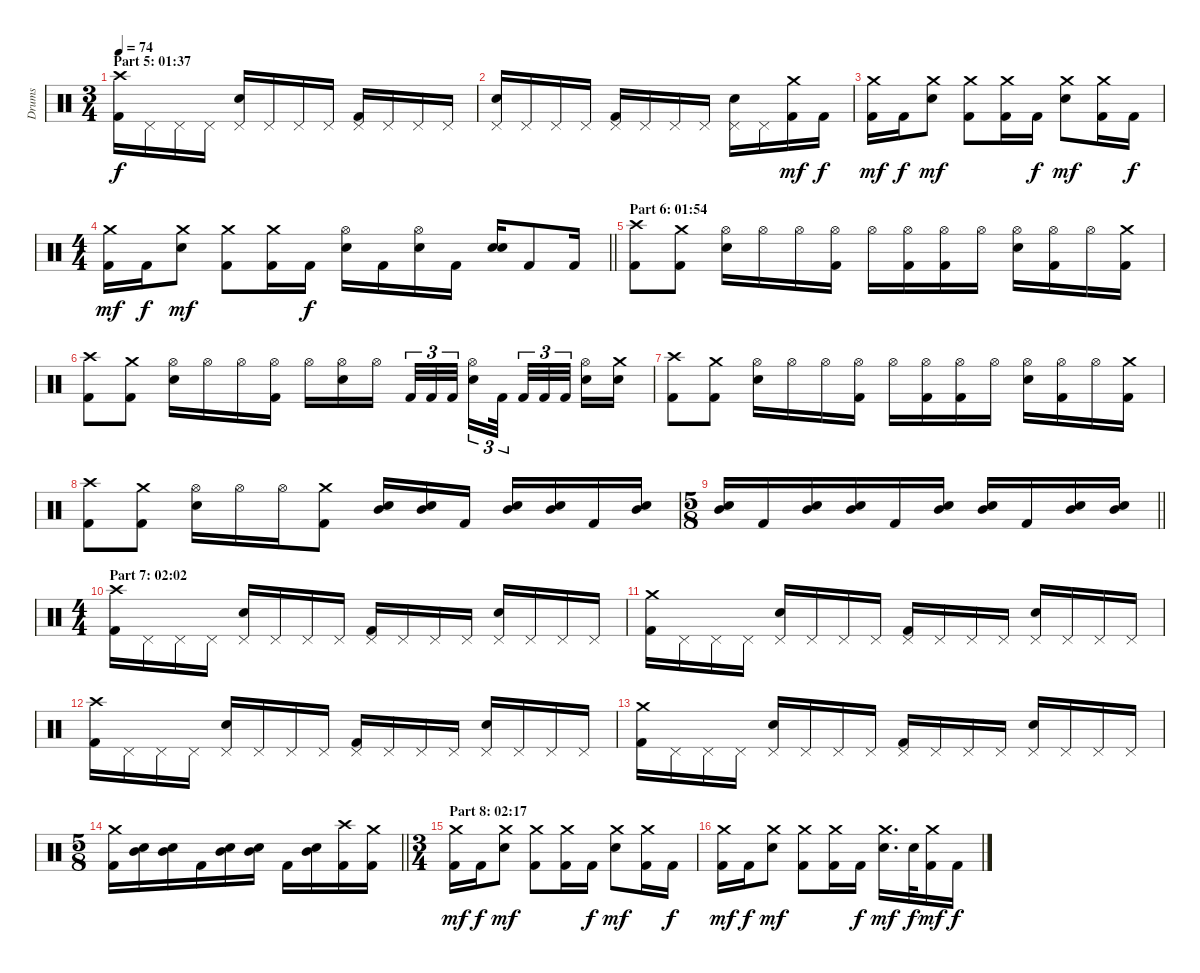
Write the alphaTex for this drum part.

\track ("Drums" "Drums") {instrument percussion}
\staff {score}
\articulation defaults
\ts (3 4)
\section ("" "Part 5: 01:37")
\tempo 74
\clef neutral
\ks c
("Crash high (hit)" "Kick (hit) 2").16{dy f} "Pedal Hi-Hat (hit)".16 "Pedal Hi-Hat (hit)".16 "Pedal Hi-Hat (hit)".16 ("Pedal Hi-Hat (hit)" "Electric Snare (hit)").16 "Pedal Hi-Hat (hit)".16 "Pedal Hi-Hat (hit)".16 "Pedal Hi-Hat (hit)".16 ("Pedal Hi-Hat (hit)" "Kick (hit) 2").16 "Pedal Hi-Hat (hit)".16 "Pedal Hi-Hat (hit)".16 "Pedal Hi-Hat (hit)".16 |
("Pedal Hi-Hat (hit)" "Electric Snare (hit)").16 "Pedal Hi-Hat (hit)".16 "Pedal Hi-Hat (hit)".16 "Pedal Hi-Hat (hit)".16 ("Pedal Hi-Hat (hit)" "Kick (hit) 2").16 "Pedal Hi-Hat (hit)".16 "Pedal Hi-Hat (hit)".16 "Pedal Hi-Hat (hit)".16 ("Pedal Hi-Hat (hit)" "Electric Snare (hit)").16 "Pedal Hi-Hat (hit)".16 ("Crash medium (hit)" "Kick (hit) 2").16{dy mf} "Kick (hit) 2".16{dy f} |
("Crash medium (hit)" "Kick (hit) 2").16{dy mf} "Kick (hit) 2".16{dy f} ("Crash medium (hit)" "Electric Snare (hit)").8{dy mf} ("Crash medium (hit)" "Kick (hit) 2").8 ("Crash medium (hit)" "Kick (hit) 2").16 "Kick (hit) 2".16{dy f} ("Crash medium (hit)" "Electric Snare (hit)").8{dy mf} ("Crash medium (hit)" "Kick (hit) 2").16 "Kick (hit) 2".16{dy f} |
\ts (4 4)
\barLineRight lightlight
("Crash medium (hit)" "Kick (hit) 2").16{dy mf} "Kick (hit) 2".16{dy f} ("Crash medium (hit)" "Electric Snare (hit)").8{dy mf} ("Crash medium (hit)" "Kick (hit) 2").8 ("Crash medium (hit)" "Kick (hit) 2").16 "Kick (hit) 2".16{dy f} ("Hi-Hat (open)" "Electric Snare (hit)").16 "Kick (hit) 2".16 ("Hi-Hat (open)" "Electric Snare (hit)").16 "Kick (hit) 2".16 ("Electric Snare (hit)" "Electric Snare (hit)").16{bd 120} "Kick (hit) 2".8 "Kick (hit) 2".16 |
\section ("" "Part 6: 01:54")
("Crash high (hit)" "Kick (hit) 2").8 ("Crash medium (hit)" "Kick (hit) 2").8 ("Hi-Hat (open)" "Electric Snare (hit)").16 "Hi-Hat (open)".16 "Hi-Hat (open)".16 ("Hi-Hat (open)" "Kick (hit) 2").16 "Hi-Hat (open)".16 ("Hi-Hat (open)" "Kick (hit) 2").16 ("Hi-Hat (open)" "Kick (hit) 2").16 "Hi-Hat (open)".16 ("Hi-Hat (open)" "Electric Snare (hit)").16 ("Hi-Hat (open)" "Kick (hit) 2").16 "Hi-Hat (open)".16 ("Crash medium (hit)" "Kick (hit) 2").16 |
("Crash high (hit)" "Kick (hit) 2").8 ("Crash medium (hit)" "Kick (hit) 2").8 ("Hi-Hat (open)" "Electric Snare (hit)").16 "Hi-Hat (open)".16 "Hi-Hat (open)".16 ("Hi-Hat (open)" "Kick (hit) 2").16 "Hi-Hat (open)".16 ("Hi-Hat (open)" "Electric Snare (hit)").16 "Hi-Hat (open)".16{beam splitsecondary} "Kick (hit) 2".32{tu (3 2)} "Kick (hit) 2".32{tu (3 2)} "Kick (hit) 2".32{tu (3 2)} ("Hi-Hat (open)" "Electric Snare (hit)").16{tu (3 2)} "Kick (hit) 2".32{tu (3 2) beam splitsecondary} "Kick (hit) 2".32{tu (3 2)} "Kick (hit) 2".32{tu (3 2)} "Kick (hit) 2".32{tu (3 2) beam splitsecondary} ("Hi-Hat (open)" "Electric Snare (hit)").16 ("Crash medium (hit)" "Electric Snare (hit)").16 |
("Crash high (hit)" "Kick (hit) 2").8 ("Crash medium (hit)" "Kick (hit) 2").8 ("Hi-Hat (open)" "Electric Snare (hit)").16 "Hi-Hat (open)".16 "Hi-Hat (open)".16 ("Hi-Hat (open)" "Kick (hit) 2").16 "Hi-Hat (open)".16 ("Hi-Hat (open)" "Kick (hit) 2").16 ("Hi-Hat (open)" "Kick (hit) 2").16 "Hi-Hat (open)".16 ("Hi-Hat (open)" "Electric Snare (hit)").16 ("Hi-Hat (open)" "Kick (hit) 2").16 "Hi-Hat (open)".16 ("Crash medium (hit)" "Kick (hit) 2").16 |
("Crash high (hit)" "Kick (hit) 2").8 ("Crash medium (hit)" "Kick (hit) 2").8 ("Hi-Hat (open)" "Electric Snare (hit)").16 "Hi-Hat (open)".16 "Hi-Hat (open)".16 ("Crash medium (hit)" "Kick (hit) 2").8 ("Mid Tom (hit)" "Electric Snare (hit)").16 ("Mid Tom (hit)" "Electric Snare (hit)").16 "Kick (hit) 2".16 ("Mid Tom (hit)" "Electric Snare (hit)").16 ("Mid Tom (hit)" "Electric Snare (hit)").16 "Kick (hit) 2".16 ("Mid Tom (hit)" "Electric Snare (hit)").16 |
\ts (5 8)
\barLineRight lightlight
("Mid Tom (hit)" "Electric Snare (hit)").16 "Kick (hit) 2".16 ("Mid Tom (hit)" "Electric Snare (hit)").16 ("Mid Tom (hit)" "Electric Snare (hit)").16 "Kick (hit) 2".16 ("Mid Tom (hit)" "Electric Snare (hit)").16 ("Mid Tom (hit)" "Electric Snare (hit)").16 "Kick (hit) 2".16 ("Mid Tom (hit)" "Electric Snare (hit)").16 ("Mid Tom (hit)" "Electric Snare (hit)").16 |
\ts (4 4)
\section ("" "Part 7: 02:02")
("Crash high (hit)" "Kick (hit) 2").16 "Pedal Hi-Hat (hit)".16 "Pedal Hi-Hat (hit)".16 "Pedal Hi-Hat (hit)".16 ("Pedal Hi-Hat (hit)" "Electric Snare (hit)").16 "Pedal Hi-Hat (hit)".16 "Pedal Hi-Hat (hit)".16 "Pedal Hi-Hat (hit)".16 ("Pedal Hi-Hat (hit)" "Kick (hit) 2").16 "Pedal Hi-Hat (hit)".16 "Pedal Hi-Hat (hit)".16 "Pedal Hi-Hat (hit)".16 ("Pedal Hi-Hat (hit)" "Electric Snare (hit)").16 "Pedal Hi-Hat (hit)".16 "Pedal Hi-Hat (hit)".16 "Pedal Hi-Hat (hit)".16 |
("Crash medium (hit)" "Kick (hit) 2").16 "Pedal Hi-Hat (hit)".16 "Pedal Hi-Hat (hit)".16 "Pedal Hi-Hat (hit)".16 ("Pedal Hi-Hat (hit)" "Electric Snare (hit)").16 "Pedal Hi-Hat (hit)".16 "Pedal Hi-Hat (hit)".16 "Pedal Hi-Hat (hit)".16 ("Pedal Hi-Hat (hit)" "Kick (hit) 2").16 "Pedal Hi-Hat (hit)".16 "Pedal Hi-Hat (hit)".16 "Pedal Hi-Hat (hit)".16 ("Pedal Hi-Hat (hit)" "Electric Snare (hit)").16 "Pedal Hi-Hat (hit)".16 "Pedal Hi-Hat (hit)".16 "Pedal Hi-Hat (hit)".16 |
("Crash high (hit)" "Kick (hit) 2").16 "Pedal Hi-Hat (hit)".16 "Pedal Hi-Hat (hit)".16 "Pedal Hi-Hat (hit)".16 ("Pedal Hi-Hat (hit)" "Electric Snare (hit)").16 "Pedal Hi-Hat (hit)".16 "Pedal Hi-Hat (hit)".16 "Pedal Hi-Hat (hit)".16 ("Pedal Hi-Hat (hit)" "Kick (hit) 2").16 "Pedal Hi-Hat (hit)".16 "Pedal Hi-Hat (hit)".16 "Pedal Hi-Hat (hit)".16 ("Pedal Hi-Hat (hit)" "Electric Snare (hit)").16 "Pedal Hi-Hat (hit)".16 "Pedal Hi-Hat (hit)".16 "Pedal Hi-Hat (hit)".16 |
("Crash medium (hit)" "Kick (hit) 2").16 "Pedal Hi-Hat (hit)".16 "Pedal Hi-Hat (hit)".16 "Pedal Hi-Hat (hit)".16 ("Pedal Hi-Hat (hit)" "Electric Snare (hit)").16 "Pedal Hi-Hat (hit)".16 "Pedal Hi-Hat (hit)".16 "Pedal Hi-Hat (hit)".16 ("Pedal Hi-Hat (hit)" "Kick (hit) 2").16 "Pedal Hi-Hat (hit)".16 "Pedal Hi-Hat (hit)".16 "Pedal Hi-Hat (hit)".16 ("Pedal Hi-Hat (hit)" "Electric Snare (hit)").16 "Pedal Hi-Hat (hit)".16 "Pedal Hi-Hat (hit)".16 "Pedal Hi-Hat (hit)".16 |
\ts (5 8)
\barLineRight lightlight
("Crash medium (hit)" "Kick (hit) 2").16 ("Mid Tom (hit)" "Electric Snare (hit)").16 ("Mid Tom (hit)" "Electric Snare (hit)").16 "Kick (hit) 2".16 ("Mid Tom (hit)" "Electric Snare (hit)").16 ("Mid Tom (hit)" "Electric Snare (hit)").16 "Kick (hit) 2".16 ("Mid Tom (hit)" "Electric Snare (hit)").16 ("Crash high (hit)" "Kick (hit) 2").16 ("Crash medium (hit)" "Kick (hit) 2").16 |
\ts (3 4)
\section ("" "Part 8: 02:17")
("Crash medium (hit)" "Kick (hit) 2").16{dy mf} "Kick (hit) 2".16{dy f} ("Crash medium (hit)" "Electric Snare (hit)").8{dy mf} ("Crash medium (hit)" "Kick (hit) 2").8 ("Crash medium (hit)" "Kick (hit) 2").16 "Kick (hit) 2".16{dy f} ("Crash medium (hit)" "Electric Snare (hit)").8{dy mf} ("Crash medium (hit)" "Kick (hit) 2").16 "Kick (hit) 2".16{dy f} |
("Crash medium (hit)" "Kick (hit) 2").16{dy mf} "Kick (hit) 2".16{dy f} ("Crash medium (hit)" "Electric Snare (hit)").8{dy mf} ("Crash medium (hit)" "Kick (hit) 2").8 ("Crash medium (hit)" "Kick (hit) 2").16 "Kick (hit) 2".16{dy f} ("Crash medium (hit)" "Electric Snare (hit)").16{d dy mf} "Electric Snare (hit)".32{dy f} ("Crash medium (hit)" "Kick (hit) 2").16{dy mf} "Kick (hit) 2".16{dy f}
